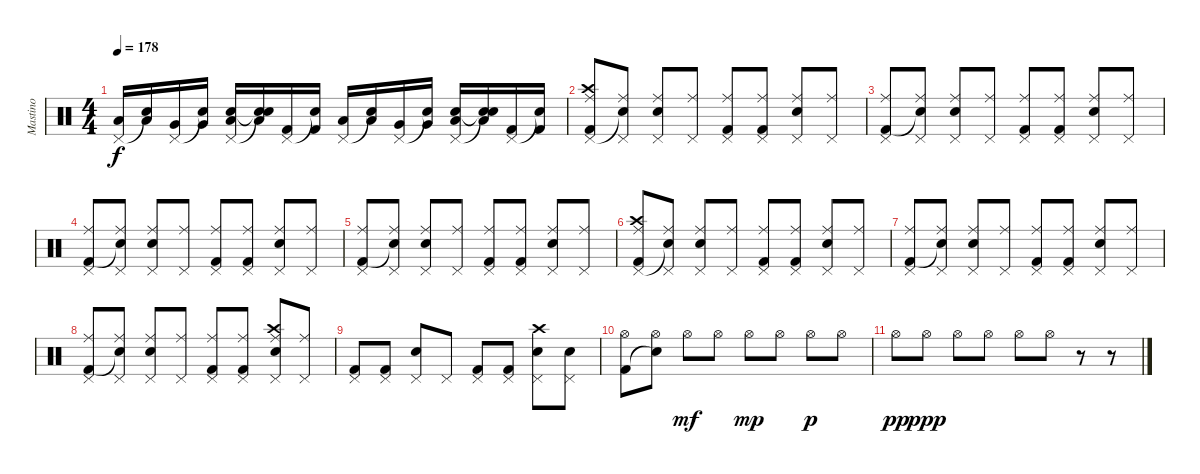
\track ("Mastino" "Mastino") {instrument percussion}
\staff {score}
\articulation defaults
\ts (4 4)
\tempo 178
\clef neutral
\ks c
("Pedal Hi-Hat (hit)" "Low Tom (hit)").16{dy f} ("Snare (hit)"{t} "Low Tom (hit)").16 ("Pedal Hi-Hat (hit)" "Very Low Tom (hit)").16 ("Snare (hit)"{t} "Very Low Tom (hit)").16 ("Pedal Hi-Hat (hit)" "Electric Snare (hit)" "Low Floor Tom (hit)").16 ("Snare (hit)"{t} "Electric Snare (hit)"{t} "Low Floor Tom (hit)").16 ("Pedal Hi-Hat (hit)" "Kick (hit) 2").16 ("Snare (hit)"{t} "Kick (hit) 2").16 ("Pedal Hi-Hat (hit)" "Low Tom (hit)").16 ("Snare (hit)"{t} "Low Tom (hit)").16 ("Pedal Hi-Hat (hit)" "Very Low Tom (hit)").16 ("Snare (hit)"{t} "Very Low Tom (hit)").16 ("Pedal Hi-Hat (hit)" "Electric Snare (hit)" "Low Floor Tom (hit)").16 ("Snare (hit)"{t} "Electric Snare (hit)"{t} "Low Floor Tom (hit)").16 ("Pedal Hi-Hat (hit)" "Kick (hit) 2").16 ("Snare (hit)"{t} "Kick (hit) 2").16 |
("Crash high (hit)" "Ride (middle)" "Pedal Hi-Hat (hit)" "Kick (hit) 2").8 ("Ride (middle)" "Pedal Hi-Hat (hit)" "Snare (hit)"{t}).8 ("Ride (middle)" "Pedal Hi-Hat (hit)" "Electric Snare (hit)").8 ("Ride (middle)" "Pedal Hi-Hat (hit)").8 ("Ride (middle)" "Pedal Hi-Hat (hit)" "Kick (hit) 2").8 ("Ride (middle)" "Pedal Hi-Hat (hit)" "Kick (hit) 2").8 ("Ride (middle)" "Pedal Hi-Hat (hit)" "Electric Snare (hit)").8 ("Ride (middle)" "Pedal Hi-Hat (hit)").8 |
("Ride (middle)" "Pedal Hi-Hat (hit)" "Kick (hit) 2").8 ("Ride (middle)" "Pedal Hi-Hat (hit)" "Snare (hit)"{t}).8 ("Ride (middle)" "Pedal Hi-Hat (hit)" "Electric Snare (hit)").8 ("Ride (middle)" "Pedal Hi-Hat (hit)").8 ("Ride (middle)" "Pedal Hi-Hat (hit)" "Kick (hit) 2").8 ("Ride (middle)" "Pedal Hi-Hat (hit)" "Kick (hit) 2").8 ("Ride (middle)" "Pedal Hi-Hat (hit)" "Electric Snare (hit)").8 ("Ride (middle)" "Pedal Hi-Hat (hit)").8 |
("Ride (middle)" "Pedal Hi-Hat (hit)" "Kick (hit) 2").8 ("Ride (middle)" "Pedal Hi-Hat (hit)" "Snare (hit)"{t}).8 ("Ride (middle)" "Pedal Hi-Hat (hit)" "Electric Snare (hit)").8 ("Ride (middle)" "Pedal Hi-Hat (hit)").8 ("Ride (middle)" "Pedal Hi-Hat (hit)" "Kick (hit) 2").8 ("Ride (middle)" "Pedal Hi-Hat (hit)" "Kick (hit) 2").8 ("Ride (middle)" "Pedal Hi-Hat (hit)" "Electric Snare (hit)").8 ("Ride (middle)" "Pedal Hi-Hat (hit)").8 |
("Ride (middle)" "Pedal Hi-Hat (hit)" "Kick (hit) 2").8 ("Ride (middle)" "Pedal Hi-Hat (hit)" "Snare (hit)"{t}).8 ("Ride (middle)" "Pedal Hi-Hat (hit)" "Electric Snare (hit)").8 ("Ride (middle)" "Pedal Hi-Hat (hit)").8 ("Ride (middle)" "Pedal Hi-Hat (hit)" "Kick (hit) 2").8 ("Ride (middle)" "Pedal Hi-Hat (hit)" "Kick (hit) 2").8 ("Ride (middle)" "Pedal Hi-Hat (hit)" "Electric Snare (hit)").8 ("Ride (middle)" "Pedal Hi-Hat (hit)").8 |
("Crash high (hit)" "Ride (middle)" "Pedal Hi-Hat (hit)" "Kick (hit) 2").8 ("Ride (middle)" "Pedal Hi-Hat (hit)" "Snare (hit)"{t}).8 ("Ride (middle)" "Pedal Hi-Hat (hit)" "Electric Snare (hit)").8 ("Ride (middle)" "Pedal Hi-Hat (hit)").8 ("Ride (middle)" "Pedal Hi-Hat (hit)" "Kick (hit) 2").8 ("Ride (middle)" "Pedal Hi-Hat (hit)" "Kick (hit) 2").8 ("Ride (middle)" "Pedal Hi-Hat (hit)" "Electric Snare (hit)").8 ("Ride (middle)" "Pedal Hi-Hat (hit)").8 |
("Ride (middle)" "Pedal Hi-Hat (hit)" "Kick (hit) 2").8 ("Ride (middle)" "Pedal Hi-Hat (hit)" "Snare (hit)"{t}).8 ("Ride (middle)" "Pedal Hi-Hat (hit)" "Electric Snare (hit)").8 ("Ride (middle)" "Pedal Hi-Hat (hit)").8 ("Ride (middle)" "Pedal Hi-Hat (hit)" "Kick (hit) 2").8 ("Ride (middle)" "Pedal Hi-Hat (hit)" "Kick (hit) 2").8 ("Ride (middle)" "Pedal Hi-Hat (hit)" "Electric Snare (hit)").8 ("Ride (middle)" "Pedal Hi-Hat (hit)").8 |
("Ride (middle)" "Pedal Hi-Hat (hit)" "Kick (hit) 2").8 ("Ride (middle)" "Pedal Hi-Hat (hit)" "Snare (hit)"{t}).8 ("Ride (middle)" "Pedal Hi-Hat (hit)" "Electric Snare (hit)").8 ("Ride (middle)" "Pedal Hi-Hat (hit)").8 ("Ride (middle)" "Pedal Hi-Hat (hit)" "Kick (hit) 2").8 ("Ride (middle)" "Pedal Hi-Hat (hit)" "Kick (hit) 2").8 ("Crash high (hit)" "Ride (middle)" "Pedal Hi-Hat (hit)" "Electric Snare (hit)").8 ("Ride (middle)" "Pedal Hi-Hat (hit)").8 |
("Pedal Hi-Hat (hit)" "Kick (hit) 2").8 ("Pedal Hi-Hat (hit)" "Kick (hit) 2").8 ("Pedal Hi-Hat (hit)" "Electric Snare (hit)").8 "Pedal Hi-Hat (hit)".8 ("Pedal Hi-Hat (hit)" "Kick (hit) 2").8 ("Pedal Hi-Hat (hit)" "Kick (hit) 2").8 ("Crash high (hit)" "Pedal Hi-Hat (hit)" "Electric Snare (hit)").8 ("Pedal Hi-Hat (hit)" "Electric Snare (hit)").8 |
("Hi-Hat (open)" "Kick (hit) 2").8 ("Hi-Hat (open)" "Snare (hit)"{t}).8 "Hi-Hat (open)".8{dy mf} "Hi-Hat (open)".8 "Hi-Hat (open)".8{dy mp} "Hi-Hat (open)".8 "Hi-Hat (open)".8{dy p} "Hi-Hat (open)".8 |
"Hi-Hat (open)".8{dy pp} "Hi-Hat (open)".8{dy ppp} "Hi-Hat (open)".8 "Hi-Hat (open)".8 "Hi-Hat (open)".8 "Hi-Hat (open)".8 r.8 r.8
